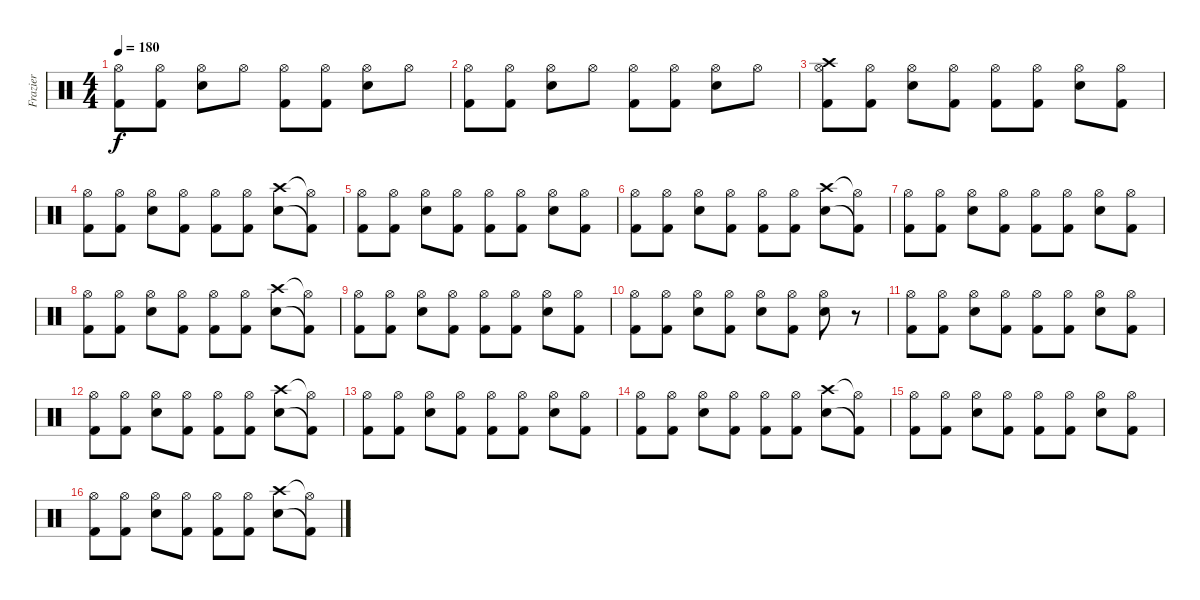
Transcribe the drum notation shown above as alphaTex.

\track ("Frazier" "Frazier") {instrument percussion}
\staff {score}
\articulation defaults
\ts (4 4)
\tempo 180
\clef neutral
\ks c
("Hi-Hat (open)" "Kick (hit) 2").8{dy f} ("Hi-Hat (open)" "Kick (hit) 2").8 ("Hi-Hat (open)" "Electric Snare (hit)").8 "Hi-Hat (open)".8 ("Hi-Hat (open)" "Kick (hit) 2").8 ("Hi-Hat (open)" "Kick (hit) 2").8 ("Hi-Hat (open)" "Electric Snare (hit)").8 "Hi-Hat (open)".8 |
("Hi-Hat (open)" "Kick (hit) 2").8 ("Hi-Hat (open)" "Kick (hit) 2").8 ("Hi-Hat (open)" "Electric Snare (hit)").8 "Hi-Hat (open)".8 ("Hi-Hat (open)" "Kick (hit) 2").8 ("Hi-Hat (open)" "Kick (hit) 2").8 ("Hi-Hat (open)" "Electric Snare (hit)").8 "Hi-Hat (open)".8 |
("Crash high (hit)" "Hi-Hat (open)" "Kick (hit) 2").8 ("Hi-Hat (open)" "Kick (hit) 2").8 ("Hi-Hat (open)" "Electric Snare (hit)").8 ("Hi-Hat (open)" "Kick (hit) 2").8 ("Hi-Hat (open)" "Kick (hit) 2").8 ("Hi-Hat (open)" "Kick (hit) 2").8 ("Hi-Hat (open)" "Electric Snare (hit)").8 ("Hi-Hat (open)" "Kick (hit) 2").8 |
("Hi-Hat (open)" "Kick (hit) 2").8 ("Hi-Hat (open)" "Kick (hit) 2").8 ("Hi-Hat (open)" "Electric Snare (hit)").8 ("Hi-Hat (open)" "Kick (hit) 2").8 ("Hi-Hat (open)" "Kick (hit) 2").8 ("Hi-Hat (open)" "Kick (hit) 2").8 ("Crash high (hit)" "Electric Snare (hit)").8 ("Hi-Hat (open)"{t} "Kick (hit) 2"{t}).8 |
("Hi-Hat (open)" "Kick (hit) 2").8 ("Hi-Hat (open)" "Kick (hit) 2").8 ("Hi-Hat (open)" "Electric Snare (hit)").8 ("Hi-Hat (open)" "Kick (hit) 2").8 ("Hi-Hat (open)" "Kick (hit) 2").8 ("Hi-Hat (open)" "Kick (hit) 2").8 ("Hi-Hat (open)" "Electric Snare (hit)").8 ("Hi-Hat (open)" "Kick (hit) 2").8 |
("Hi-Hat (open)" "Kick (hit) 2").8 ("Hi-Hat (open)" "Kick (hit) 2").8 ("Hi-Hat (open)" "Electric Snare (hit)").8 ("Hi-Hat (open)" "Kick (hit) 2").8 ("Hi-Hat (open)" "Kick (hit) 2").8 ("Hi-Hat (open)" "Kick (hit) 2").8 ("Crash high (hit)" "Electric Snare (hit)").8 ("Hi-Hat (open)"{t} "Kick (hit) 2"{t}).8 |
("Hi-Hat (open)" "Kick (hit) 2").8 ("Hi-Hat (open)" "Kick (hit) 2").8 ("Hi-Hat (open)" "Electric Snare (hit)").8 ("Hi-Hat (open)" "Kick (hit) 2").8 ("Hi-Hat (open)" "Kick (hit) 2").8 ("Hi-Hat (open)" "Kick (hit) 2").8 ("Hi-Hat (open)" "Electric Snare (hit)").8 ("Hi-Hat (open)" "Kick (hit) 2").8 |
("Hi-Hat (open)" "Kick (hit) 2").8 ("Hi-Hat (open)" "Kick (hit) 2").8 ("Hi-Hat (open)" "Electric Snare (hit)").8 ("Hi-Hat (open)" "Kick (hit) 2").8 ("Hi-Hat (open)" "Kick (hit) 2").8 ("Hi-Hat (open)" "Kick (hit) 2").8 ("Crash high (hit)" "Electric Snare (hit)").8 ("Hi-Hat (open)"{t} "Kick (hit) 2"{t}).8 |
("Hi-Hat (open)" "Kick (hit) 2").8 ("Hi-Hat (open)" "Kick (hit) 2").8 ("Hi-Hat (open)" "Electric Snare (hit)").8 ("Hi-Hat (open)" "Kick (hit) 2").8 ("Hi-Hat (open)" "Kick (hit) 2").8 ("Hi-Hat (open)" "Kick (hit) 2").8 ("Hi-Hat (open)" "Electric Snare (hit)").8 ("Hi-Hat (open)" "Kick (hit) 2").8 |
("Hi-Hat (open)" "Kick (hit) 2").8 ("Hi-Hat (open)" "Kick (hit) 2").8 ("Hi-Hat (open)" "Electric Snare (hit)").8 ("Hi-Hat (open)" "Kick (hit) 2").8 ("Hi-Hat (open)" "Electric Snare (hit)").8 ("Hi-Hat (open)" "Kick (hit) 2").8 ("Hi-Hat (open)" "Electric Snare (hit)").8 r.8 |
("Hi-Hat (open)" "Kick (hit) 2").8 ("Hi-Hat (open)" "Kick (hit) 2").8 ("Hi-Hat (open)" "Electric Snare (hit)").8 ("Hi-Hat (open)" "Kick (hit) 2").8 ("Hi-Hat (open)" "Kick (hit) 2").8 ("Hi-Hat (open)" "Kick (hit) 2").8 ("Hi-Hat (open)" "Electric Snare (hit)").8 ("Hi-Hat (open)" "Kick (hit) 2").8 |
("Hi-Hat (open)" "Kick (hit) 2").8 ("Hi-Hat (open)" "Kick (hit) 2").8 ("Hi-Hat (open)" "Electric Snare (hit)").8 ("Hi-Hat (open)" "Kick (hit) 2").8 ("Hi-Hat (open)" "Kick (hit) 2").8 ("Hi-Hat (open)" "Kick (hit) 2").8 ("Crash high (hit)" "Electric Snare (hit)").8 ("Hi-Hat (open)"{t} "Kick (hit) 2"{t}).8 |
("Hi-Hat (open)" "Kick (hit) 2").8 ("Hi-Hat (open)" "Kick (hit) 2").8 ("Hi-Hat (open)" "Electric Snare (hit)").8 ("Hi-Hat (open)" "Kick (hit) 2").8 ("Hi-Hat (open)" "Kick (hit) 2").8 ("Hi-Hat (open)" "Kick (hit) 2").8 ("Hi-Hat (open)" "Electric Snare (hit)").8 ("Hi-Hat (open)" "Kick (hit) 2").8 |
("Hi-Hat (open)" "Kick (hit) 2").8 ("Hi-Hat (open)" "Kick (hit) 2").8 ("Hi-Hat (open)" "Electric Snare (hit)").8 ("Hi-Hat (open)" "Kick (hit) 2").8 ("Hi-Hat (open)" "Kick (hit) 2").8 ("Hi-Hat (open)" "Kick (hit) 2").8 ("Crash high (hit)" "Electric Snare (hit)").8 ("Hi-Hat (open)"{t} "Kick (hit) 2"{t}).8 |
("Hi-Hat (open)" "Kick (hit) 2").8 ("Hi-Hat (open)" "Kick (hit) 2").8 ("Hi-Hat (open)" "Electric Snare (hit)").8 ("Hi-Hat (open)" "Kick (hit) 2").8 ("Hi-Hat (open)" "Kick (hit) 2").8 ("Hi-Hat (open)" "Kick (hit) 2").8 ("Hi-Hat (open)" "Electric Snare (hit)").8 ("Hi-Hat (open)" "Kick (hit) 2").8 |
("Hi-Hat (open)" "Kick (hit) 2").8 ("Hi-Hat (open)" "Kick (hit) 2").8 ("Hi-Hat (open)" "Electric Snare (hit)").8 ("Hi-Hat (open)" "Kick (hit) 2").8 ("Hi-Hat (open)" "Kick (hit) 2").8 ("Hi-Hat (open)" "Kick (hit) 2").8 ("Crash high (hit)" "Electric Snare (hit)").8 ("Hi-Hat (open)"{t} "Kick (hit) 2"{t}).8
